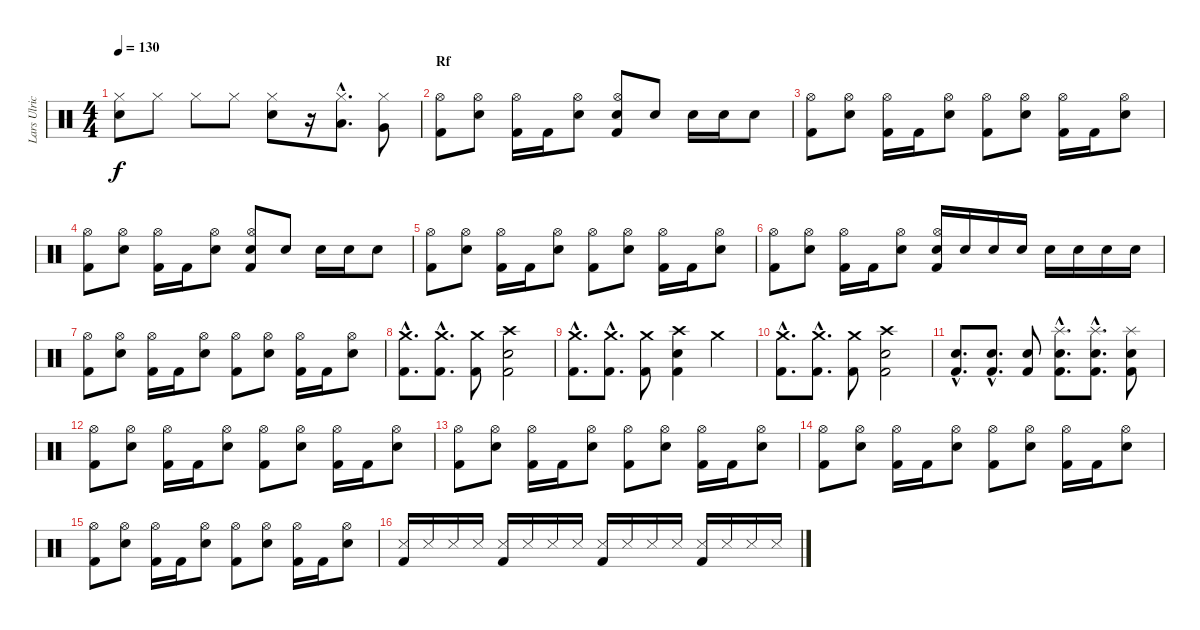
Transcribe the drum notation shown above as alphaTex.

\track ("Lars Ulrich" "Lars Ulric") {instrument percussion}
\staff {score}
\articulation defaults
\ts (4 4)
\tempo 130
\clef neutral
\ks c
("Hi-Hat (closed)" "Electric Snare (hit)").8{dy f} "Hi-Hat (closed)".8 "Hi-Hat (closed)".8 "Hi-Hat (closed)".8 ("Hi-Hat (closed)" "Electric Snare (hit)").8 r.16 ("Hi-Hat (closed)"{hac} "Low Tom (hit)"{hac}).8{d} ("Hi-Hat (closed)" "Very Low Tom (hit)").8 |
\section ("" "Rf")
("Hi-Hat (open)" "Kick (hit) 2").8 ("Hi-Hat (open)" "Electric Snare (hit)").8 ("Hi-Hat (open)" "Kick (hit) 2").16 "Kick (hit) 2".16 ("Hi-Hat (open)" "Electric Snare (hit)").8 ("Hi-Hat (open)" "Electric Snare (hit)" "Kick (hit) 2").8 "Electric Snare (hit)".8 "Electric Snare (hit)".16 "Electric Snare (hit)".16 "Electric Snare (hit)".8 |
("Hi-Hat (open)" "Kick (hit) 2").8 ("Hi-Hat (open)" "Electric Snare (hit)").8 ("Hi-Hat (open)" "Kick (hit) 2").16 "Kick (hit) 2".16 ("Hi-Hat (open)" "Electric Snare (hit)").8 ("Hi-Hat (open)" "Kick (hit) 2").8 ("Hi-Hat (open)" "Electric Snare (hit)").8 ("Hi-Hat (open)" "Kick (hit) 2").16 "Kick (hit) 2".16 ("Hi-Hat (open)" "Electric Snare (hit)").8 |
("Hi-Hat (open)" "Kick (hit) 2").8 ("Hi-Hat (open)" "Electric Snare (hit)").8 ("Hi-Hat (open)" "Kick (hit) 2").16 "Kick (hit) 2".16 ("Hi-Hat (open)" "Electric Snare (hit)").8 ("Hi-Hat (open)" "Electric Snare (hit)" "Kick (hit) 2").8 "Electric Snare (hit)".8 "Electric Snare (hit)".16 "Electric Snare (hit)".16 "Electric Snare (hit)".8 |
("Hi-Hat (open)" "Kick (hit) 2").8 ("Hi-Hat (open)" "Electric Snare (hit)").8 ("Hi-Hat (open)" "Kick (hit) 2").16 "Kick (hit) 2".16 ("Hi-Hat (open)" "Electric Snare (hit)").8 ("Hi-Hat (open)" "Kick (hit) 2").8 ("Hi-Hat (open)" "Electric Snare (hit)").8 ("Hi-Hat (open)" "Kick (hit) 2").16 "Kick (hit) 2".16 ("Hi-Hat (open)" "Electric Snare (hit)").8 |
("Hi-Hat (open)" "Kick (hit) 2").8 ("Hi-Hat (open)" "Electric Snare (hit)").8 ("Hi-Hat (open)" "Kick (hit) 2").16 "Kick (hit) 2".16 ("Hi-Hat (open)" "Electric Snare (hit)").8 ("Hi-Hat (open)" "Electric Snare (hit)" "Kick (hit) 2").16 "Electric Snare (hit)".16 "Electric Snare (hit)".16 "Electric Snare (hit)".16 "Electric Snare (hit)".16 "Electric Snare (hit)".16 "Electric Snare (hit)".16 "Electric Snare (hit)".16 |
("Hi-Hat (open)" "Kick (hit) 2").8 ("Hi-Hat (open)" "Electric Snare (hit)").8 ("Hi-Hat (open)" "Kick (hit) 2").16 "Kick (hit) 2".16 ("Hi-Hat (open)" "Electric Snare (hit)").8 ("Hi-Hat (open)" "Kick (hit) 2").8 ("Hi-Hat (open)" "Electric Snare (hit)").8 ("Hi-Hat (open)" "Kick (hit) 2").16 "Kick (hit) 2".16 ("Hi-Hat (open)" "Electric Snare (hit)").8 |
("Crash medium (hit)"{hac} "Kick (hit) 2"{hac}).8{d} ("Crash medium (hit)"{hac} "Kick (hit) 2"{hac}).8{d} ("Crash medium (hit)" "Kick (hit) 2").8 ("Crash high (hit)" "Electric Snare (hit)" "Kick (hit) 2").2 |
("Crash medium (hit)"{hac} "Kick (hit) 2"{hac}).8{d} ("Crash medium (hit)"{hac} "Kick (hit) 2"{hac}).8{d} ("Crash medium (hit)" "Kick (hit) 2").8 ("Crash high (hit)" "Electric Snare (hit)" "Kick (hit) 2").4 "Crash medium (hit)".4 |
("Crash medium (hit)"{hac} "Kick (hit) 2"{hac}).8{d} ("Crash medium (hit)"{hac} "Kick (hit) 2"{hac}).8{d} ("Crash medium (hit)" "Kick (hit) 2").8 ("Crash high (hit)" "Electric Snare (hit)" "Kick (hit) 2").2 |
("Electric Snare (hit)"{hac} "Kick (hit) 2"{hac}).8{d} ("Electric Snare (hit)"{hac} "Kick (hit) 2"{hac}).8{d} ("Electric Snare (hit)" "Kick (hit) 2").8 ("Splash (hit)"{hac} "Electric Snare (hit)"{hac} "Kick (hit) 2"{hac}).8{d} ("Splash (hit)"{hac} "Electric Snare (hit)"{hac} "Kick (hit) 2"{hac}).8{d} ("Splash (hit)" "Electric Snare (hit)" "Kick (hit) 2").8 |
("Hi-Hat (open)" "Kick (hit) 2").8 ("Hi-Hat (open)" "Electric Snare (hit)").8 ("Hi-Hat (open)" "Kick (hit) 2").16 "Kick (hit) 2".16 ("Hi-Hat (open)" "Electric Snare (hit)").8 ("Hi-Hat (open)" "Kick (hit) 2").8 ("Hi-Hat (open)" "Electric Snare (hit)").8 ("Hi-Hat (open)" "Kick (hit) 2").16 "Kick (hit) 2".16 ("Hi-Hat (open)" "Electric Snare (hit)").8 |
("Hi-Hat (open)" "Kick (hit) 2").8 ("Hi-Hat (open)" "Electric Snare (hit)").8 ("Hi-Hat (open)" "Kick (hit) 2").16 "Kick (hit) 2".16 ("Hi-Hat (open)" "Electric Snare (hit)").8 ("Hi-Hat (open)" "Kick (hit) 2").8 ("Hi-Hat (open)" "Electric Snare (hit)").8 ("Hi-Hat (open)" "Kick (hit) 2").16 "Kick (hit) 2".16 ("Hi-Hat (open)" "Electric Snare (hit)").8 |
("Hi-Hat (open)" "Kick (hit) 2").8 ("Hi-Hat (open)" "Electric Snare (hit)").8 ("Hi-Hat (open)" "Kick (hit) 2").16 "Kick (hit) 2".16 ("Hi-Hat (open)" "Electric Snare (hit)").8 ("Hi-Hat (open)" "Kick (hit) 2").8 ("Hi-Hat (open)" "Electric Snare (hit)").8 ("Hi-Hat (open)" "Kick (hit) 2").16 "Kick (hit) 2".16 ("Hi-Hat (open)" "Electric Snare (hit)").8 |
("Hi-Hat (open)" "Kick (hit) 2").8 ("Hi-Hat (open)" "Electric Snare (hit)").8 ("Hi-Hat (open)" "Kick (hit) 2").16 "Kick (hit) 2".16 ("Hi-Hat (open)" "Electric Snare (hit)").8 ("Hi-Hat (open)" "Kick (hit) 2").8 ("Hi-Hat (open)" "Electric Snare (hit)").8 ("Hi-Hat (open)" "Kick (hit) 2").16 "Kick (hit) 2".16 ("Hi-Hat (open)" "Electric Snare (hit)").8 |
("Metronome (hit)" "Kick (hit) 2").16 "Snare (side stick) 3".16 "Snare (side stick) 3".16 "Snare (side stick) 3".16 ("Metronome (hit)" "Kick (hit) 2").16 "Snare (side stick) 3".16 "Snare (side stick) 3".16 "Snare (side stick) 3".16 ("Metronome (hit)" "Kick (hit) 2").16 "Snare (side stick) 3".16 "Snare (side stick) 3".16 "Snare (side stick) 3".16 ("Metronome (hit)" "Kick (hit) 2").16 "Snare (side stick) 3".16 "Snare (side stick) 3".16 "Snare (side stick) 3".16
